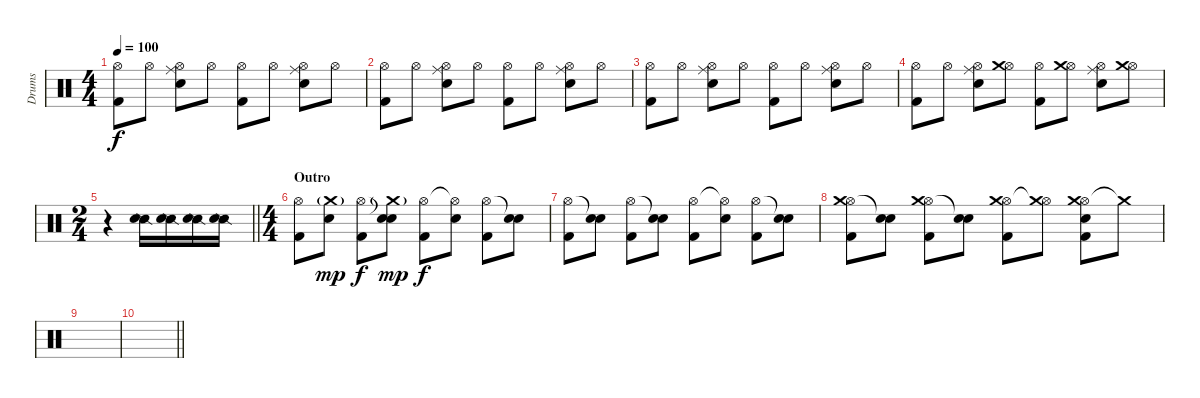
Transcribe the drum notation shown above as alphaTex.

\track ("Drums" "Drums") {instrument percussion}
\staff {score}
\articulation defaults
\ts (4 4)
\tempo 100
\clef neutral
\ks c
("Hi-Hat (open)" "Kick (hit) 2").8{dy f} "Hi-Hat (open)".8 ("Hi-Hat (open)" "Ride (middle)" "Snare (hit) 2").8 "Hi-Hat (open)".8 ("Hi-Hat (open)" "Kick (hit) 2").8 "Hi-Hat (open)".8 ("Hi-Hat (open)" "Ride (middle)" "Snare (hit) 2").8 "Hi-Hat (open)".8 |
("Hi-Hat (open)" "Kick (hit) 2").8 "Hi-Hat (open)".8 ("Hi-Hat (open)" "Ride (middle)" "Snare (hit) 2").8 "Hi-Hat (open)".8 ("Hi-Hat (open)" "Kick (hit) 2").8 "Hi-Hat (open)".8 ("Hi-Hat (open)" "Ride (middle)" "Snare (hit) 2").8 "Hi-Hat (open)".8 |
("Hi-Hat (open)" "Kick (hit) 2").8 "Hi-Hat (open)".8 ("Hi-Hat (open)" "Ride (middle)" "Snare (hit) 2").8 "Hi-Hat (open)".8 ("Hi-Hat (open)" "Kick (hit) 2").8 "Hi-Hat (open)".8 ("Hi-Hat (open)" "Ride (middle)" "Snare (hit) 2").8 "Hi-Hat (open)".8 |
("Hi-Hat (open)" "Kick (hit) 2").8 "Hi-Hat (open)".8 ("Hi-Hat (open)" "Ride (middle)" "Snare (hit) 2").8 ("Hi-Hat (open)" "Crash medium (hit)").8 ("Hi-Hat (open)" "Kick (hit) 2").8 ("Hi-Hat (open)" "Crash medium (hit)").8 ("Hi-Hat (open)" "Ride (middle)" "Snare (hit) 2").8 ("Hi-Hat (open)" "Crash medium (hit)").8 |
\ts (2 4)
\barLineRight lightlight
r.4 ("Snare (side stick) 2" "Snare (hit) 2").16 ("Snare (side stick) 2" "Snare (hit) 2").16 ("Snare (side stick) 2" "Snare (hit) 2").16 ("Snare (side stick) 2" "Snare (hit) 2").16 |
\ts (4 4)
\section ("" "Outro")
("Hi-Hat (open)" "Kick (hit) 2").8 ("Crash medium (hit)"{g} "Snare (hit) 2").8{dy mp} ("Hi-Hat (open)" "Kick (hit) 2").8{dy f} ("Snare (hit)"{t} "Crash medium (hit)"{g} "Snare (hit) 2").8{dy mp} ("Hi-Hat (open)" "Kick (hit) 2").8{dy f} ("Hi-Hat (open)"{t} "Snare (hit) 2").8 ("Hi-Hat (open)" "Kick (hit) 2").8 ("Snare (hit)"{t} "Snare (hit) 2").8 |
("Hi-Hat (open)" "Kick (hit) 2").8 ("Snare (hit)"{t} "Snare (hit) 2").8 ("Hi-Hat (open)" "Kick (hit) 2").8 ("Snare (hit)"{t} "Snare (hit) 2").8 ("Hi-Hat (open)" "Kick (hit) 2").8 ("Hi-Hat (open)"{t} "Snare (hit) 2").8 ("Hi-Hat (open)" "Kick (hit) 2").8 ("Snare (hit)"{t} "Snare (hit) 2").8 |
("Hi-Hat (open)" "Crash medium (hit)" "Kick (hit) 2").8 ("Snare (hit)"{t} "Snare (hit) 2").8 ("Hi-Hat (open)" "Crash medium (hit)" "Kick (hit) 2").8 ("Snare (hit)"{t} "Snare (hit) 2").8 ("Hi-Hat (open)" "Crash medium (hit)" "Kick (hit) 2").8 ("Hi-Hat (open)"{t} "Crash medium (hit)").8 ("Hi-Hat (open)" "Crash medium (hit)" "Snare (hit) 2" "Kick (hit) 2").8 "Crash medium (hit)"{t}.8 |
|
\barLineRight lightlight
